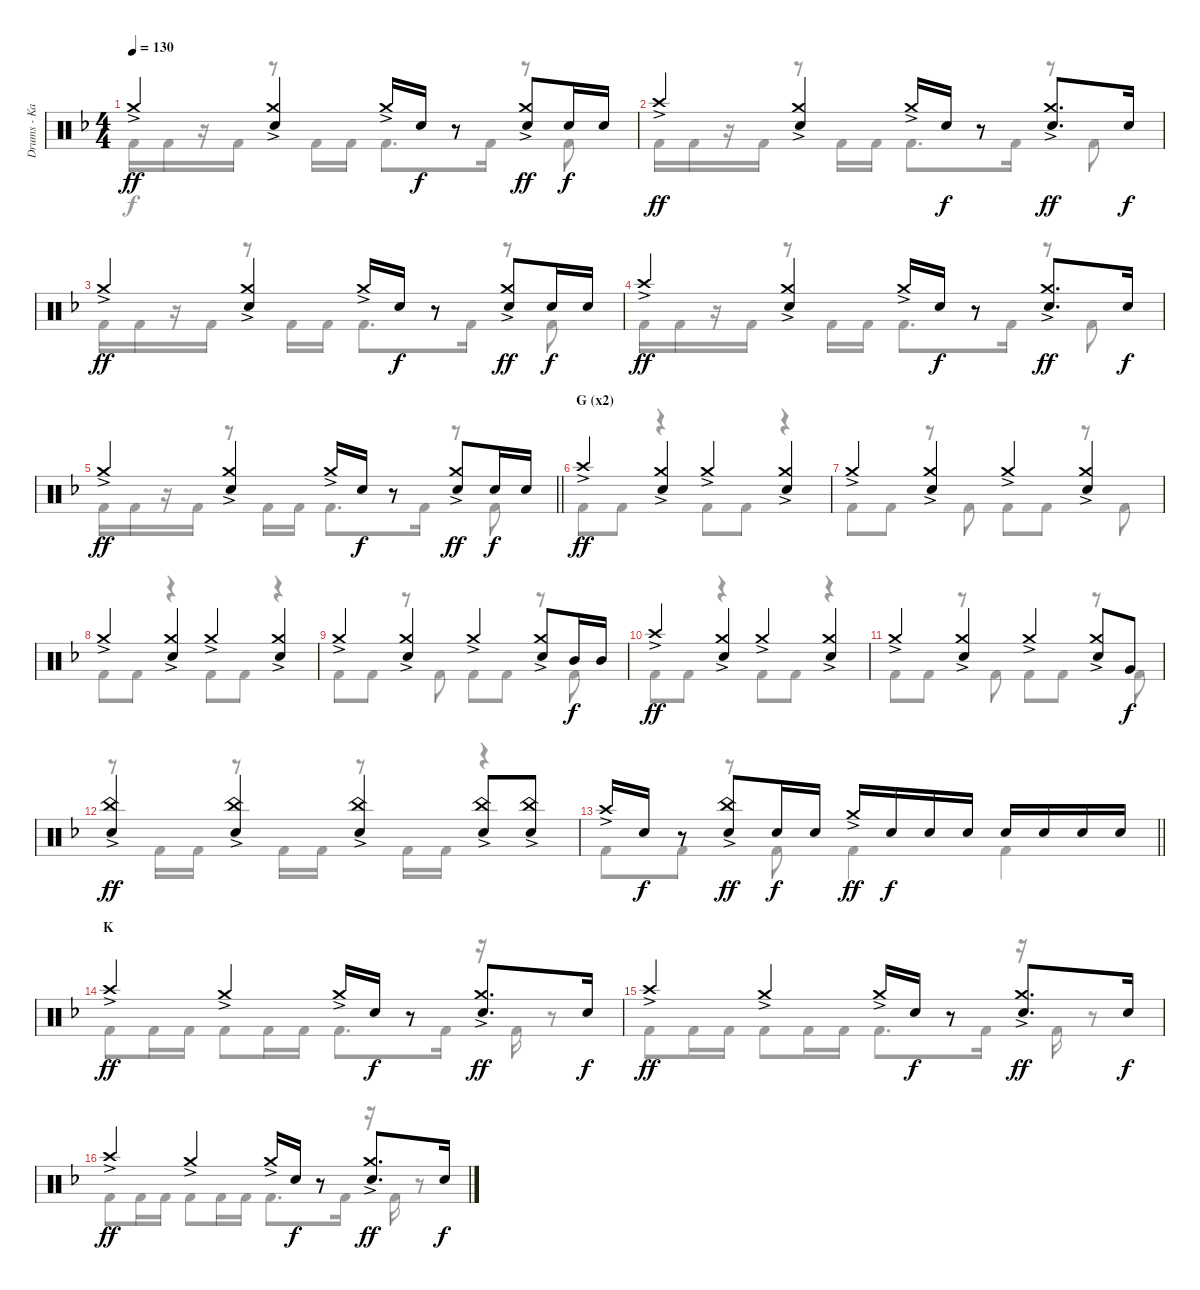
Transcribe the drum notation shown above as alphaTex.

\track ("Drums - Kai" "Drums - Ka") {instrument percussion}
\staff {score}
\articulation defaults
\voice
\ts (4 4)
\tempo 130
\clef neutral
\ks f "Crash medium (hit)"{ac}.4{dy ff}
("Crash medium (hit)"{ac} "Snare (hit) 2").4 "Crash medium (hit)"{ac}.16 "Snare (hit) 2".16{dy f} r.8 ("Crash medium (hit)"{ac} "Snare (hit) 2").8{dy ff} "Snare (hit) 2".16{dy f} "Snare (hit) 2".16 |
"Crash high (hit)"{ac}.4{dy ff} ("Crash medium (hit)"{ac} "Snare (hit) 2").4 "Crash medium (hit)"{ac}.16 "Snare (hit) 2".16{dy f} r.8 ("Crash medium (hit)"{ac} "Snare (hit) 2").8{d dy ff} "Snare (hit) 2".16{dy f} |
"Crash medium (hit)"{ac}.4{dy ff} ("Crash medium (hit)"{ac} "Snare (hit) 2").4 "Crash medium (hit)"{ac}.16 "Snare (hit) 2".16{dy f} r.8 ("Crash medium (hit)"{ac} "Snare (hit) 2").8{dy ff} "Snare (hit) 2".16{dy f} "Snare (hit) 2".16 |
"Crash high (hit)"{ac}.4{dy ff} ("Crash medium (hit)"{ac} "Snare (hit) 2").4 "Crash medium (hit)"{ac}.16 "Snare (hit) 2".16{dy f} r.8 ("Crash medium (hit)"{ac} "Snare (hit) 2").8{d dy ff} "Snare (hit) 2".16{dy f} |
\barLineRight lightlight "Crash medium (hit)"{ac}.4{dy ff}
("Crash medium (hit)"{ac} "Snare (hit) 2").4 "Crash medium (hit)"{ac}.16 "Snare (hit) 2".16{dy f} r.8 ("Crash medium (hit)"{ac} "Snare (hit) 2").8{dy ff} "Snare (hit) 2".16{dy f} "Snare (hit) 2".16 |
\section ("" "G (x2)")
"Crash high (hit)"{ac}.4{dy ff} ("Crash medium (hit)"{ac} "Snare (hit) 2").4 "Crash medium (hit)"{ac}.4 ("Crash medium (hit)"{ac} "Snare (hit) 2").4 |
"Crash medium (hit)"{ac}.4 ("Crash medium (hit)"{ac} "Snare (hit) 2").4 "Crash medium (hit)"{ac}.4 ("Crash medium (hit)"{ac} "Snare (hit) 2").4 |
"Crash medium (hit)"{ac}.4 ("Crash medium (hit)"{ac} "Snare (hit) 2").4 "Crash medium (hit)"{ac}.4 ("Crash medium (hit)"{ac} "Snare (hit) 2").4 |
"Crash medium (hit)"{ac}.4 ("Crash medium (hit)"{ac} "Snare (hit) 2").4 "Crash medium (hit)"{ac}.4 ("Crash medium (hit)"{ac} "Snare (hit) 2").8 "Mid Tom (hit)".16{dy f} "Mid Tom (hit)".16 |
"Crash high (hit)"{ac}.4{dy ff} ("Crash medium (hit)"{ac} "Snare (hit) 2").4 "Crash medium (hit)"{ac}.4 ("Crash medium (hit)"{ac} "Snare (hit) 2").4 |
"Crash medium (hit)"{ac}.4 ("Crash medium (hit)"{ac} "Snare (hit) 2").4 "Crash medium (hit)"{ac}.4 ("Crash medium (hit)"{ac} "Snare (hit) 2").8 "Very Low Tom (hit)".8{dy f} |
("China (hit)"{ac} "Snare (hit) 2").4{dy ff} ("China (hit)"{ac} "Snare (hit) 2").4 ("China (hit)"{ac} "Snare (hit) 2").4 ("China (hit)"{ac} "Snare (hit) 2").8 ("China (hit)"{ac} "Snare (hit) 2").8 |
\barLineRight lightlight "Crash high (hit)"{ac}.16 "Snare (hit) 2".16{dy f}
r.8 ("China (hit)"{ac} "Snare (hit) 2").8{dy ff} "Snare (hit) 2".16{dy f} "Snare (hit) 2".16 "Crash medium (hit)"{ac}.16{dy ff} "Snare (hit) 2".16{dy f} "Snare (hit) 2".16 "Snare (hit) 2".16 "Snare (hit) 2".16 "Snare (hit) 2".16 "Snare (hit) 2".16 "Snare (hit) 2".16 |
\section ("" "K")
"Crash high (hit)"{ac}.4{dy ff} "Crash medium (hit)"{ac}.4 "Crash medium (hit)"{ac}.16 "Snare (hit) 2".16{dy f} r.8 ("Crash medium (hit)"{ac} "Snare (hit) 2").8{d dy ff} "Snare (hit) 2".16{dy f} |
"Crash high (hit)"{ac}.4{dy ff} "Crash medium (hit)"{ac}.4 "Crash medium (hit)"{ac}.16 "Snare (hit) 2".16{dy f} r.8 ("Crash medium (hit)"{ac} "Snare (hit) 2").8{d dy ff} "Snare (hit) 2".16{dy f} |
"Crash high (hit)"{ac}.4{dy ff} "Crash medium (hit)"{ac}.4 "Crash medium (hit)"{ac}.16 "Snare (hit) 2".16{dy f} r.8 ("Crash medium (hit)"{ac} "Snare (hit) 2").8{d dy ff} "Snare (hit) 2".16{dy f}
\voice
\clef neutral
\ottava regular
\simile none
\ks f "Kick (hit) 2".16{dy f} "Kick (hit) 2".16
r.16 "Kick (hit) 2".16 r.8 "Kick (hit) 2".16 "Kick (hit) 2".16 "Kick (hit) 2".8{d} "Kick (hit) 2".16 r.8 "Kick (hit) 2".8 |
"Kick (hit) 2".16 "Kick (hit) 2".16 r.16 "Kick (hit) 2".16 r.8 "Kick (hit) 2".16 "Kick (hit) 2".16 "Kick (hit) 2".8{d} "Kick (hit) 2".16 r.8 "Kick (hit) 2".8 |
"Kick (hit) 2".16 "Kick (hit) 2".16 r.16 "Kick (hit) 2".16 r.8 "Kick (hit) 2".16 "Kick (hit) 2".16 "Kick (hit) 2".8{d} "Kick (hit) 2".16 r.8 "Kick (hit) 2".8 |
"Kick (hit) 2".16 "Kick (hit) 2".16 r.16 "Kick (hit) 2".16 r.8 "Kick (hit) 2".16 "Kick (hit) 2".16 "Kick (hit) 2".8{d} "Kick (hit) 2".16 r.8 "Kick (hit) 2".8 |
\barLineRight lightlight "Kick (hit) 2".16 "Kick (hit) 2".16
r.16 "Kick (hit) 2".16 r.8 "Kick (hit) 2".16 "Kick (hit) 2".16 "Kick (hit) 2".8{d} "Kick (hit) 2".16 r.8 "Kick (hit) 2".8 |
"Kick (hit) 2".8 "Kick (hit) 2".8 r.4 "Kick (hit) 2".8 "Kick (hit) 2".8 r.4 |
"Kick (hit) 2".8 "Kick (hit) 2".8 r.8 "Kick (hit) 2".8 "Kick (hit) 2".8 "Kick (hit) 2".8 r.8 "Kick (hit) 2".8 |
"Kick (hit) 2".8 "Kick (hit) 2".8 r.4 "Kick (hit) 2".8 "Kick (hit) 2".8 r.4 |
"Kick (hit) 2".8 "Kick (hit) 2".8 r.8 "Kick (hit) 2".8 "Kick (hit) 2".8 "Kick (hit) 2".8 r.8 "Kick (hit) 2".8 |
"Kick (hit) 2".8 "Kick (hit) 2".8 r.4 "Kick (hit) 2".8 "Kick (hit) 2".8 r.4 |
"Kick (hit) 2".8 "Kick (hit) 2".8 r.8 "Kick (hit) 2".8 "Kick (hit) 2".8 "Kick (hit) 2".8 r.8 "Kick (hit) 2".8 |
r.8 "Kick (hit) 2".16 "Kick (hit) 2".16 r.8 "Kick (hit) 2".16 "Kick (hit) 2".16 r.8 "Kick (hit) 2".16 "Kick (hit) 2".16 r.4 |
\barLineRight lightlight "Kick (hit) 2".8 "Kick (hit) 2".8
r.8 "Kick (hit) 2".8 "Kick (hit) 2".4 "Kick (hit) 2".4 |
"Kick (hit) 2".8 "Kick (hit) 2".16 "Kick (hit) 2".16 "Kick (hit) 2".8 "Kick (hit) 2".16 "Kick (hit) 2".16 "Kick (hit) 2".8{d} "Kick (hit) 2".16 r.16 "Kick (hit) 2".16 r.8 |
"Kick (hit) 2".8 "Kick (hit) 2".16 "Kick (hit) 2".16 "Kick (hit) 2".8 "Kick (hit) 2".16 "Kick (hit) 2".16 "Kick (hit) 2".8{d} "Kick (hit) 2".16 r.16 "Kick (hit) 2".16 r.8 |
"Kick (hit) 2".8 "Kick (hit) 2".16 "Kick (hit) 2".16 "Kick (hit) 2".8 "Kick (hit) 2".16 "Kick (hit) 2".16 "Kick (hit) 2".8{d} "Kick (hit) 2".16 r.16 "Kick (hit) 2".16 r.8
